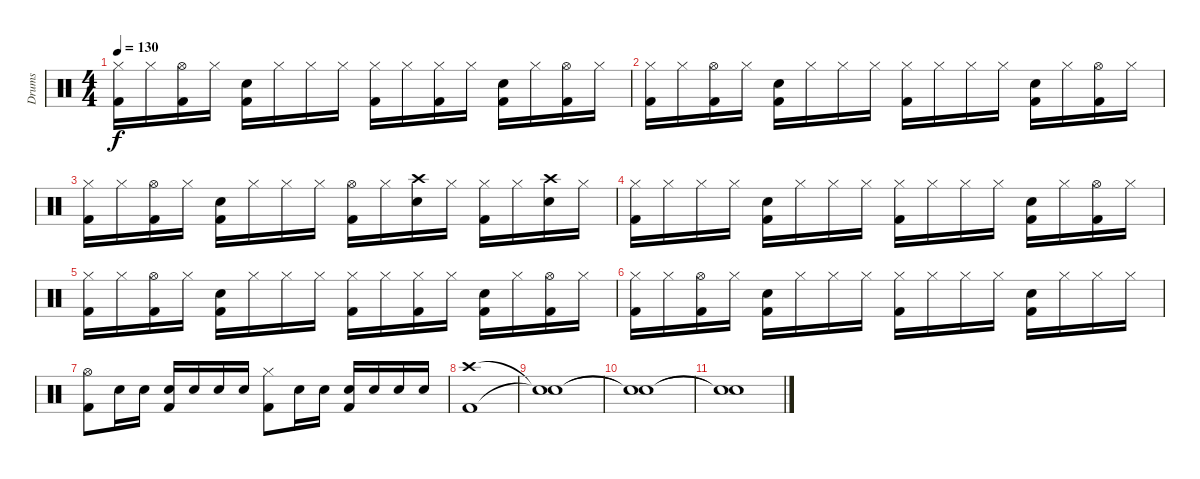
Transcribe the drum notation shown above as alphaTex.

\track ("Drums" "Drums") {instrument percussion}
\staff {score}
\articulation defaults
\ts (4 4)
\tempo 130
\clef neutral
\ks c
("Hi-Hat (closed)" "Kick (hit) 2").16{dy f} "Hi-Hat (closed)".16 ("Hi-Hat (open)" "Kick (hit) 2").16 "Hi-Hat (closed)".16 ("Electric Snare (hit)" "Kick (hit) 2").16 "Hi-Hat (closed)".16 "Hi-Hat (closed)".16 "Hi-Hat (closed)".16 ("Hi-Hat (closed)" "Kick (hit) 2").16 "Hi-Hat (closed)".16 ("Hi-Hat (closed)" "Kick (hit) 2").16 "Hi-Hat (closed)".16 ("Electric Snare (hit)" "Kick (hit) 2").16 "Hi-Hat (closed)".16 ("Hi-Hat (open)" "Kick (hit) 2").16 "Hi-Hat (closed)".16 |
("Hi-Hat (closed)" "Kick (hit) 2").16 "Hi-Hat (closed)".16 ("Hi-Hat (open)" "Kick (hit) 2").16 "Hi-Hat (closed)".16 ("Electric Snare (hit)" "Kick (hit) 2").16 "Hi-Hat (closed)".16 "Hi-Hat (closed)".16 "Hi-Hat (closed)".16 ("Hi-Hat (closed)" "Kick (hit) 2").16 "Hi-Hat (closed)".16 "Hi-Hat (closed)".16 "Hi-Hat (closed)".16 ("Electric Snare (hit)" "Kick (hit) 2").16 "Hi-Hat (closed)".16 ("Hi-Hat (open)" "Kick (hit) 2").16 "Hi-Hat (closed)".16 |
("Hi-Hat (closed)" "Kick (hit) 2").16 "Hi-Hat (closed)".16 ("Hi-Hat (open)" "Kick (hit) 2").16 "Hi-Hat (closed)".16 ("Electric Snare (hit)" "Kick (hit) 2").16 "Hi-Hat (closed)".16 "Hi-Hat (closed)".16 "Hi-Hat (closed)".16 ("Hi-Hat (open)" "Kick (hit) 2").16 "Hi-Hat (closed)".16 ("Crash high (hit)" "Electric Snare (hit)").16 "Hi-Hat (closed)".16 ("Hi-Hat (closed)" "Kick (hit) 2").16 "Hi-Hat (closed)".16 ("Crash high (hit)" "Electric Snare (hit)").16 "Hi-Hat (closed)".16 |
("Hi-Hat (closed)" "Kick (hit) 2").16 "Hi-Hat (closed)".16 "Hi-Hat (closed)".16 "Hi-Hat (closed)".16 ("Electric Snare (hit)" "Kick (hit) 2").16 "Hi-Hat (closed)".16 "Hi-Hat (closed)".16 "Hi-Hat (closed)".16 ("Hi-Hat (closed)" "Kick (hit) 2").16 "Hi-Hat (closed)".16 "Hi-Hat (closed)".16 "Hi-Hat (closed)".16 ("Electric Snare (hit)" "Kick (hit) 2").16 "Hi-Hat (closed)".16 ("Hi-Hat (open)" "Kick (hit) 2").16 "Hi-Hat (closed)".16 |
("Hi-Hat (closed)" "Kick (hit) 2").16 "Hi-Hat (closed)".16 ("Hi-Hat (open)" "Kick (hit) 2").16 "Hi-Hat (closed)".16 ("Electric Snare (hit)" "Kick (hit) 2").16 "Hi-Hat (closed)".16 "Hi-Hat (closed)".16 "Hi-Hat (closed)".16 ("Hi-Hat (closed)" "Kick (hit) 2").16 "Hi-Hat (closed)".16 ("Hi-Hat (closed)" "Kick (hit) 2").16 "Hi-Hat (closed)".16 ("Electric Snare (hit)" "Kick (hit) 2").16 "Hi-Hat (closed)".16 ("Hi-Hat (open)" "Kick (hit) 2").16 "Hi-Hat (closed)".16 |
("Hi-Hat (closed)" "Kick (hit) 2").16 "Hi-Hat (closed)".16 ("Hi-Hat (open)" "Kick (hit) 2").16 "Hi-Hat (closed)".16 ("Electric Snare (hit)" "Kick (hit) 2").16 "Hi-Hat (closed)".16 "Hi-Hat (closed)".16 "Hi-Hat (closed)".16 ("Hi-Hat (closed)" "Kick (hit) 2").16 "Hi-Hat (closed)".16 "Hi-Hat (closed)".16 "Hi-Hat (closed)".16 ("Electric Snare (hit)" "Kick (hit) 2").16 "Hi-Hat (closed)".16 "Hi-Hat (closed)".16 "Hi-Hat (closed)".16 |
("Hi-Hat (open)" "Kick (hit) 2").8 "Electric Snare (hit)".16 "Electric Snare (hit)".16 ("Electric Snare (hit)" "Kick (hit) 2").16 "Electric Snare (hit)".16 "Electric Snare (hit)".16 "Electric Snare (hit)".16 ("Hi-Hat (closed)" "Kick (hit) 2").8 "Electric Snare (hit)".16 "Electric Snare (hit)".16 ("Electric Snare (hit)" "Kick (hit) 2").16 "Electric Snare (hit)".16 "Electric Snare (hit)".16 "Electric Snare (hit)".16 |
("Crash high (hit)" "Kick (hit) 2").1 |
("Snare (hit)"{t} "Snare (hit)"{t}).1 |
("Snare (hit)"{t} "Snare (hit)"{t}).1 |
("Snare (hit)"{t} "Snare (hit)"{t}).1
